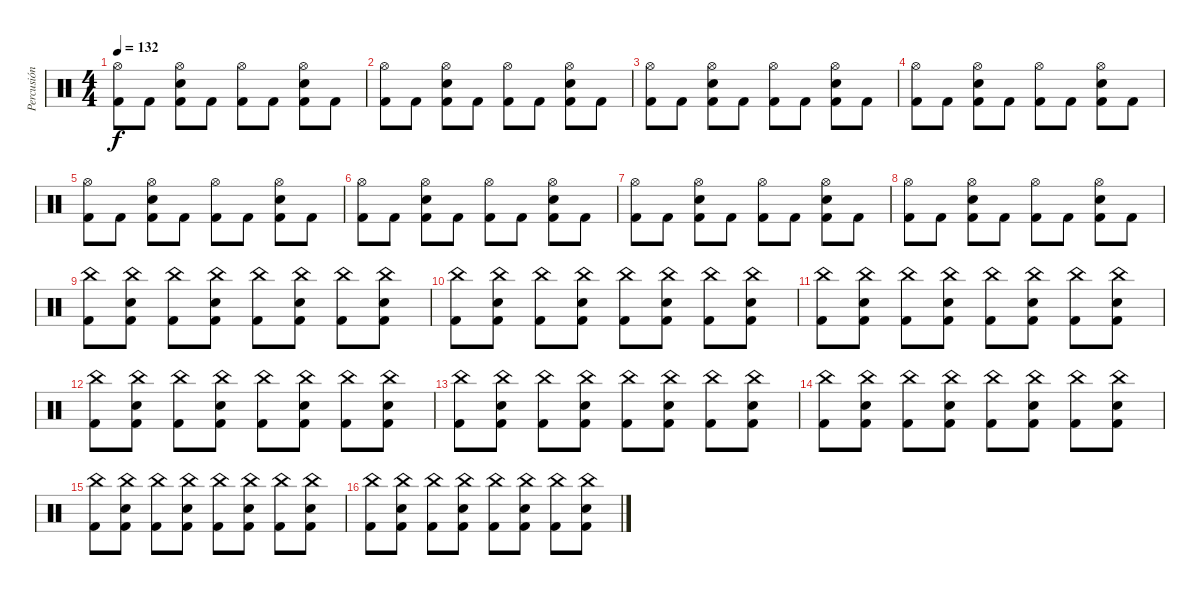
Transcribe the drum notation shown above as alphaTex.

\track ("Percusión" "Percusión") {instrument percussion}
\staff {score}
\articulation defaults
\ts (4 4)
\tempo 132
\clef neutral
\ks c
("Hi-Hat (open)" "Kick (hit) 2").8{dy f} "Kick (hit) 2".8 ("Hi-Hat (open)" "Electric Snare (hit)" "Kick (hit) 2").8 "Kick (hit) 2".8 ("Hi-Hat (open)" "Kick (hit) 2").8 "Kick (hit) 2".8 ("Hi-Hat (open)" "Electric Snare (hit)" "Kick (hit) 2").8 "Kick (hit) 2".8 |
("Hi-Hat (open)" "Kick (hit) 2").8 "Kick (hit) 2".8 ("Hi-Hat (open)" "Electric Snare (hit)" "Kick (hit) 2").8 "Kick (hit) 2".8 ("Hi-Hat (open)" "Kick (hit) 2").8 "Kick (hit) 2".8 ("Hi-Hat (open)" "Electric Snare (hit)" "Kick (hit) 2").8 "Kick (hit) 2".8 |
("Hi-Hat (open)" "Kick (hit) 2").8 "Kick (hit) 2".8 ("Hi-Hat (open)" "Electric Snare (hit)" "Kick (hit) 2").8 "Kick (hit) 2".8 ("Hi-Hat (open)" "Kick (hit) 2").8 "Kick (hit) 2".8 ("Hi-Hat (open)" "Electric Snare (hit)" "Kick (hit) 2").8 "Kick (hit) 2".8 |
("Hi-Hat (open)" "Kick (hit) 2").8 "Kick (hit) 2".8 ("Hi-Hat (open)" "Electric Snare (hit)" "Kick (hit) 2").8 "Kick (hit) 2".8 ("Hi-Hat (open)" "Kick (hit) 2").8 "Kick (hit) 2".8 ("Hi-Hat (open)" "Electric Snare (hit)" "Kick (hit) 2").8 "Kick (hit) 2".8 |
("Hi-Hat (open)" "Kick (hit) 2").8 "Kick (hit) 2".8 ("Hi-Hat (open)" "Electric Snare (hit)" "Kick (hit) 2").8 "Kick (hit) 2".8 ("Hi-Hat (open)" "Kick (hit) 2").8 "Kick (hit) 2".8 ("Hi-Hat (open)" "Electric Snare (hit)" "Kick (hit) 2").8 "Kick (hit) 2".8 |
("Hi-Hat (open)" "Kick (hit) 2").8 "Kick (hit) 2".8 ("Hi-Hat (open)" "Electric Snare (hit)" "Kick (hit) 2").8 "Kick (hit) 2".8 ("Hi-Hat (open)" "Kick (hit) 2").8 "Kick (hit) 2".8 ("Hi-Hat (open)" "Electric Snare (hit)" "Kick (hit) 2").8 "Kick (hit) 2".8 |
("Hi-Hat (open)" "Kick (hit) 2").8 "Kick (hit) 2".8 ("Hi-Hat (open)" "Electric Snare (hit)" "Kick (hit) 2").8 "Kick (hit) 2".8 ("Hi-Hat (open)" "Kick (hit) 2").8 "Kick (hit) 2".8 ("Hi-Hat (open)" "Electric Snare (hit)" "Kick (hit) 2").8 "Kick (hit) 2".8 |
("Hi-Hat (open)" "Kick (hit) 2").8 "Kick (hit) 2".8 ("Hi-Hat (open)" "Electric Snare (hit)" "Kick (hit) 2").8 "Kick (hit) 2".8 ("Hi-Hat (open)" "Kick (hit) 2").8 "Kick (hit) 2".8 ("Hi-Hat (open)" "Electric Snare (hit)" "Kick (hit) 2").8 "Kick (hit) 2".8 |
("China (hit)" "Kick (hit) 2").8 ("China (hit)" "Electric Snare (hit)" "Kick (hit) 2").8 ("China (hit)" "Kick (hit) 2").8 ("China (hit)" "Electric Snare (hit)" "Kick (hit) 2").8 ("China (hit)" "Kick (hit) 2").8 ("China (hit)" "Electric Snare (hit)" "Kick (hit) 2").8 ("China (hit)" "Kick (hit) 2").8 ("China (hit)" "Electric Snare (hit)" "Kick (hit) 2").8 |
("China (hit)" "Kick (hit) 2").8 ("China (hit)" "Electric Snare (hit)" "Kick (hit) 2").8 ("China (hit)" "Kick (hit) 2").8 ("China (hit)" "Electric Snare (hit)" "Kick (hit) 2").8 ("China (hit)" "Kick (hit) 2").8 ("China (hit)" "Electric Snare (hit)" "Kick (hit) 2").8 ("China (hit)" "Kick (hit) 2").8 ("China (hit)" "Electric Snare (hit)" "Kick (hit) 2").8 |
("China (hit)" "Kick (hit) 2").8 ("China (hit)" "Electric Snare (hit)" "Kick (hit) 2").8 ("China (hit)" "Kick (hit) 2").8 ("China (hit)" "Electric Snare (hit)" "Kick (hit) 2").8 ("China (hit)" "Kick (hit) 2").8 ("China (hit)" "Electric Snare (hit)" "Kick (hit) 2").8 ("China (hit)" "Kick (hit) 2").8 ("China (hit)" "Electric Snare (hit)" "Kick (hit) 2").8 |
("China (hit)" "Kick (hit) 2").8 ("China (hit)" "Electric Snare (hit)" "Kick (hit) 2").8 ("China (hit)" "Kick (hit) 2").8 ("China (hit)" "Electric Snare (hit)" "Kick (hit) 2").8 ("China (hit)" "Kick (hit) 2").8 ("China (hit)" "Electric Snare (hit)" "Kick (hit) 2").8 ("China (hit)" "Kick (hit) 2").8 ("China (hit)" "Electric Snare (hit)" "Kick (hit) 2").8 |
("China (hit)" "Kick (hit) 2").8 ("China (hit)" "Electric Snare (hit)" "Kick (hit) 2").8 ("China (hit)" "Kick (hit) 2").8 ("China (hit)" "Electric Snare (hit)" "Kick (hit) 2").8 ("China (hit)" "Kick (hit) 2").8 ("China (hit)" "Electric Snare (hit)" "Kick (hit) 2").8 ("China (hit)" "Kick (hit) 2").8 ("China (hit)" "Electric Snare (hit)" "Kick (hit) 2").8 |
("China (hit)" "Kick (hit) 2").8 ("China (hit)" "Electric Snare (hit)" "Kick (hit) 2").8 ("China (hit)" "Kick (hit) 2").8 ("China (hit)" "Electric Snare (hit)" "Kick (hit) 2").8 ("China (hit)" "Kick (hit) 2").8 ("China (hit)" "Electric Snare (hit)" "Kick (hit) 2").8 ("China (hit)" "Kick (hit) 2").8 ("China (hit)" "Electric Snare (hit)" "Kick (hit) 2").8 |
("China (hit)" "Kick (hit) 2").8 ("China (hit)" "Electric Snare (hit)" "Kick (hit) 2").8 ("China (hit)" "Kick (hit) 2").8 ("China (hit)" "Electric Snare (hit)" "Kick (hit) 2").8 ("China (hit)" "Kick (hit) 2").8 ("China (hit)" "Electric Snare (hit)" "Kick (hit) 2").8 ("China (hit)" "Kick (hit) 2").8 ("China (hit)" "Electric Snare (hit)" "Kick (hit) 2").8 |
("China (hit)" "Kick (hit) 2").8 ("China (hit)" "Electric Snare (hit)" "Kick (hit) 2").8 ("China (hit)" "Kick (hit) 2").8 ("China (hit)" "Electric Snare (hit)" "Kick (hit) 2").8 ("China (hit)" "Kick (hit) 2").8 ("China (hit)" "Electric Snare (hit)" "Kick (hit) 2").8 ("China (hit)" "Kick (hit) 2").8 ("China (hit)" "Electric Snare (hit)" "Kick (hit) 2").8
